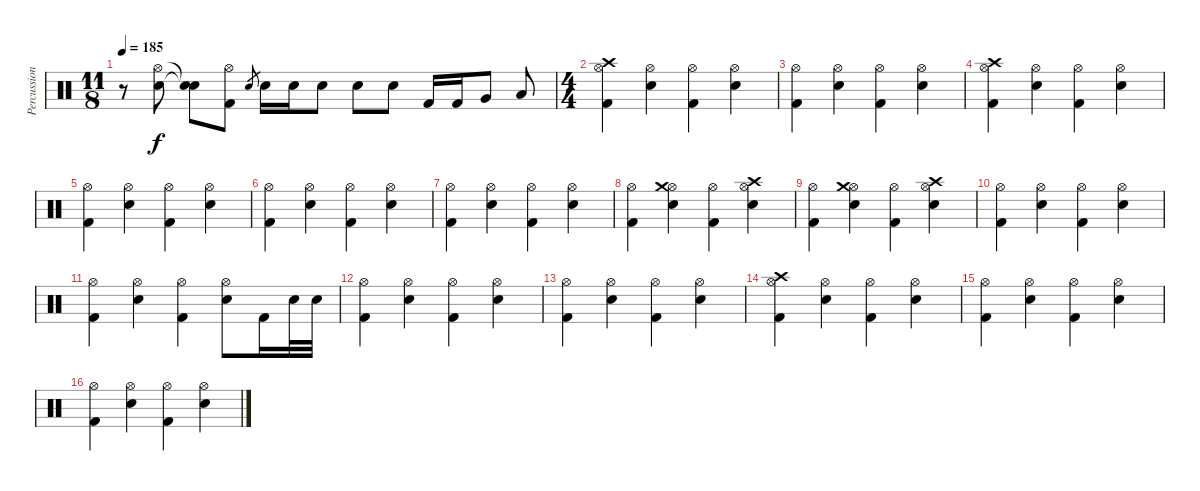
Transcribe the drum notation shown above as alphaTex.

\track ("Percussion" "Percussion") {instrument percussion}
\staff {score}
\articulation defaults
\ts (11 8)
\tempo 185
\clef neutral
\ks c
r.8{dy f} ("Hi-Hat (open)" "Electric Snare (hit)").8 ("Snare (hit)"{t} "Snare (hit)"{t}).8 ("Hi-Hat (open)" "Kick (hit) 2").8 "Electric Snare (hit)".8{gr} "Electric Snare (hit)".16 "Electric Snare (hit)".16 "Electric Snare (hit)".8 "Electric Snare (hit)".8 "Electric Snare (hit)".8 "Kick (hit) 2".16 "Kick (hit) 2".16 "Very Low Tom (hit)".8 "Low Floor Tom (hit)".8 |
\ts (4 4)
("Hi-Hat (open)" "Crash high (hit)" "Kick (hit) 2").4 ("Hi-Hat (open)" "Electric Snare (hit)").4 ("Hi-Hat (open)" "Kick (hit) 2").4 ("Hi-Hat (open)" "Electric Snare (hit)").4 |
("Hi-Hat (open)" "Kick (hit) 2").4 ("Hi-Hat (open)" "Electric Snare (hit)").4 ("Hi-Hat (open)" "Kick (hit) 2").4 ("Hi-Hat (open)" "Electric Snare (hit)").4 |
("Hi-Hat (open)" "Crash high (hit)" "Kick (hit) 2").4 ("Hi-Hat (open)" "Electric Snare (hit)").4 ("Hi-Hat (open)" "Kick (hit) 2").4 ("Hi-Hat (open)" "Electric Snare (hit)").4 |
("Hi-Hat (open)" "Kick (hit) 2").4 ("Hi-Hat (open)" "Electric Snare (hit)").4 ("Hi-Hat (open)" "Kick (hit) 2").4 ("Hi-Hat (open)" "Electric Snare (hit)").4 |
("Hi-Hat (open)" "Kick (hit) 2").4 ("Hi-Hat (open)" "Electric Snare (hit)").4 ("Hi-Hat (open)" "Kick (hit) 2").4 ("Hi-Hat (open)" "Electric Snare (hit)").4 |
("Hi-Hat (open)" "Kick (hit) 2").4 ("Hi-Hat (open)" "Electric Snare (hit)").4 ("Hi-Hat (open)" "Kick (hit) 2").4 ("Hi-Hat (open)" "Electric Snare (hit)").4 |
("Hi-Hat (open)" "Kick (hit) 2").4 ("Hi-Hat (open)" "Crash medium (hit)" "Electric Snare (hit)").4 ("Hi-Hat (open)" "Kick (hit) 2").4 ("Hi-Hat (open)" "Crash high (hit)" "Electric Snare (hit)").4 |
("Hi-Hat (open)" "Kick (hit) 2").4 ("Hi-Hat (open)" "Crash medium (hit)" "Electric Snare (hit)").4 ("Hi-Hat (open)" "Kick (hit) 2").4 ("Hi-Hat (open)" "Crash high (hit)" "Electric Snare (hit)").4 |
("Hi-Hat (open)" "Kick (hit) 2").4 ("Hi-Hat (open)" "Electric Snare (hit)").4 ("Hi-Hat (open)" "Kick (hit) 2").4 ("Hi-Hat (open)" "Electric Snare (hit)").4 |
("Hi-Hat (open)" "Kick (hit) 2").4 ("Hi-Hat (open)" "Electric Snare (hit)").4 ("Hi-Hat (open)" "Kick (hit) 2").4 ("Hi-Hat (open)" "Electric Snare (hit)").8 "Kick (hit) 2".16 "Electric Snare (hit)".32 "Electric Snare (hit)".32 |
("Hi-Hat (open)" "Kick (hit) 2").4 ("Hi-Hat (open)" "Electric Snare (hit)").4 ("Hi-Hat (open)" "Kick (hit) 2").4 ("Hi-Hat (open)" "Electric Snare (hit)").4 |
("Hi-Hat (open)" "Kick (hit) 2").4 ("Hi-Hat (open)" "Electric Snare (hit)").4 ("Hi-Hat (open)" "Kick (hit) 2").4 ("Hi-Hat (open)" "Electric Snare (hit)").4 |
("Hi-Hat (open)" "Crash high (hit)" "Kick (hit) 2").4 ("Hi-Hat (open)" "Electric Snare (hit)").4 ("Hi-Hat (open)" "Kick (hit) 2").4 ("Hi-Hat (open)" "Electric Snare (hit)").4 |
("Hi-Hat (open)" "Kick (hit) 2").4 ("Hi-Hat (open)" "Electric Snare (hit)").4 ("Hi-Hat (open)" "Kick (hit) 2").4 ("Hi-Hat (open)" "Electric Snare (hit)").4 |
("Hi-Hat (open)" "Kick (hit) 2").4 ("Hi-Hat (open)" "Electric Snare (hit)").4 ("Hi-Hat (open)" "Kick (hit) 2").4 ("Hi-Hat (open)" "Electric Snare (hit)").4
